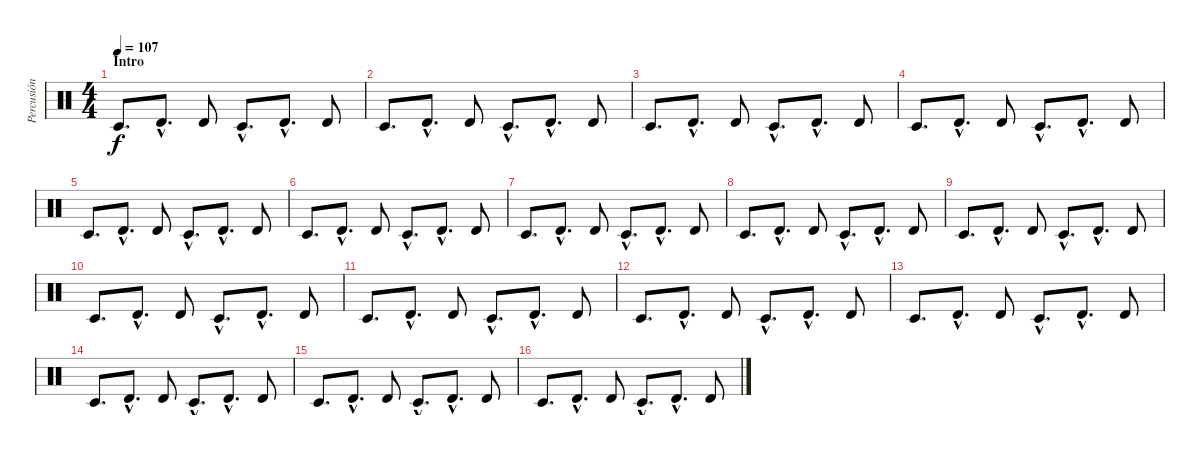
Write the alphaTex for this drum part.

\track ("Percusión" "Percusión") {instrument percussion}
\staff {score}
\articulation defaults
\ts (4 4)
\section ("" "Intro")
\tempo 107
\clef neutral
\ks c "Timbale low (hit)".8{d dy f} "Timbale high (hit)"{hac}.8{d} "Timbale high (hit)".8 "Timbale low (hit)"{hac}.8{d} "Timbale high (hit)"{hac}.8{d} "Timbale high (hit)".8
|
"Timbale low (hit)".8{d} "Timbale high (hit)"{hac}.8{d} "Timbale high (hit)".8 "Timbale low (hit)"{hac}.8{d} "Timbale high (hit)"{hac}.8{d} "Timbale high (hit)".8 |
"Timbale low (hit)".8{d} "Timbale high (hit)"{hac}.8{d} "Timbale high (hit)".8 "Timbale low (hit)"{hac}.8{d} "Timbale high (hit)"{hac}.8{d} "Timbale high (hit)".8 |
"Timbale low (hit)".8{d} "Timbale high (hit)"{hac}.8{d} "Timbale high (hit)".8 "Timbale low (hit)"{hac}.8{d} "Timbale high (hit)"{hac}.8{d} "Timbale high (hit)".8 |
"Timbale low (hit)".8{d} "Timbale high (hit)"{hac}.8{d} "Timbale high (hit)".8 "Timbale low (hit)"{hac}.8{d} "Timbale high (hit)"{hac}.8{d} "Timbale high (hit)".8 |
"Timbale low (hit)".8{d} "Timbale high (hit)"{hac}.8{d} "Timbale high (hit)".8 "Timbale low (hit)"{hac}.8{d} "Timbale high (hit)"{hac}.8{d} "Timbale high (hit)".8 |
"Timbale low (hit)".8{d} "Timbale high (hit)"{hac}.8{d} "Timbale high (hit)".8 "Timbale low (hit)"{hac}.8{d} "Timbale high (hit)"{hac}.8{d} "Timbale high (hit)".8 |
"Timbale low (hit)".8{d} "Timbale high (hit)"{hac}.8{d} "Timbale high (hit)".8 "Timbale low (hit)"{hac}.8{d} "Timbale high (hit)"{hac}.8{d} "Timbale high (hit)".8 |
"Timbale low (hit)".8{d} "Timbale high (hit)"{hac}.8{d} "Timbale high (hit)".8 "Timbale low (hit)"{hac}.8{d} "Timbale high (hit)"{hac}.8{d} "Timbale high (hit)".8 |
"Timbale low (hit)".8{d} "Timbale high (hit)"{hac}.8{d} "Timbale high (hit)".8 "Timbale low (hit)"{hac}.8{d} "Timbale high (hit)"{hac}.8{d} "Timbale high (hit)".8 |
"Timbale low (hit)".8{d} "Timbale high (hit)"{hac}.8{d} "Timbale high (hit)".8 "Timbale low (hit)"{hac}.8{d} "Timbale high (hit)"{hac}.8{d} "Timbale high (hit)".8 |
"Timbale low (hit)".8{d} "Timbale high (hit)"{hac}.8{d} "Timbale high (hit)".8 "Timbale low (hit)"{hac}.8{d} "Timbale high (hit)"{hac}.8{d} "Timbale high (hit)".8 |
"Timbale low (hit)".8{d} "Timbale high (hit)"{hac}.8{d} "Timbale high (hit)".8 "Timbale low (hit)"{hac}.8{d} "Timbale high (hit)"{hac}.8{d} "Timbale high (hit)".8 |
"Timbale low (hit)".8{d} "Timbale high (hit)"{hac}.8{d} "Timbale high (hit)".8 "Timbale low (hit)"{hac}.8{d} "Timbale high (hit)"{hac}.8{d} "Timbale high (hit)".8 |
"Timbale low (hit)".8{d} "Timbale high (hit)"{hac}.8{d} "Timbale high (hit)".8 "Timbale low (hit)"{hac}.8{d} "Timbale high (hit)"{hac}.8{d} "Timbale high (hit)".8 |
"Timbale low (hit)".8{d} "Timbale high (hit)"{hac}.8{d} "Timbale high (hit)".8 "Timbale low (hit)"{hac}.8{d} "Timbale high (hit)"{hac}.8{d} "Timbale high (hit)".8
